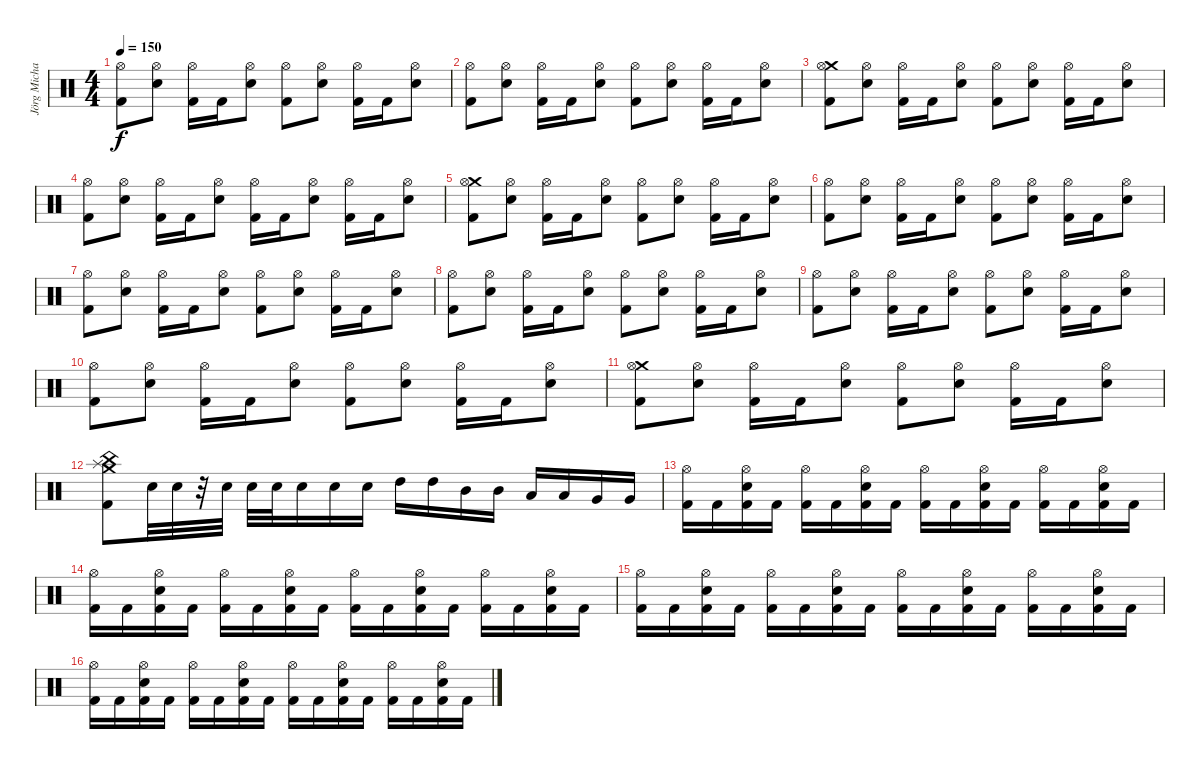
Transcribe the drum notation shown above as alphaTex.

\track ("Jörg Michael (Drums)" "Jörg Micha") {instrument percussion}
\staff {score}
\articulation defaults
\ts (4 4)
\tempo 150
\clef neutral
\ks c
("Hi-Hat (open)" "Kick (hit) 2").8{dy f} ("Hi-Hat (open)" "Electric Snare (hit)").8 ("Hi-Hat (open)" "Kick (hit) 2").16 "Kick (hit) 2".16 ("Hi-Hat (open)" "Electric Snare (hit)").8 ("Hi-Hat (open)" "Kick (hit) 2").8 ("Hi-Hat (open)" "Electric Snare (hit)").8 ("Hi-Hat (open)" "Kick (hit) 2").16 "Kick (hit) 2".16 ("Hi-Hat (open)" "Electric Snare (hit)").8 |
("Hi-Hat (open)" "Kick (hit) 2").8 ("Hi-Hat (open)" "Electric Snare (hit)").8 ("Hi-Hat (open)" "Kick (hit) 2").16 "Kick (hit) 2".16 ("Hi-Hat (open)" "Electric Snare (hit)").8 ("Hi-Hat (open)" "Kick (hit) 2").8 ("Hi-Hat (open)" "Electric Snare (hit)").8 ("Hi-Hat (open)" "Kick (hit) 2").16 "Kick (hit) 2".16 ("Hi-Hat (open)" "Electric Snare (hit)").8 |
("Crash medium (hit)" "Hi-Hat (open)" "Kick (hit) 2").8 ("Hi-Hat (open)" "Electric Snare (hit)").8 ("Hi-Hat (open)" "Kick (hit) 2").16 "Kick (hit) 2".16 ("Hi-Hat (open)" "Electric Snare (hit)").8 ("Hi-Hat (open)" "Kick (hit) 2").8 ("Hi-Hat (open)" "Electric Snare (hit)").8 ("Hi-Hat (open)" "Kick (hit) 2").16 "Kick (hit) 2".16 ("Hi-Hat (open)" "Electric Snare (hit)").8 |
("Hi-Hat (open)" "Kick (hit) 2").8 ("Hi-Hat (open)" "Electric Snare (hit)").8 ("Hi-Hat (open)" "Kick (hit) 2").16 "Kick (hit) 2".16 ("Hi-Hat (open)" "Electric Snare (hit)").8 ("Kick (hit) 2" "Hi-Hat (open)").16 "Kick (hit) 2".16 ("Hi-Hat (open)" "Electric Snare (hit)").8 ("Hi-Hat (open)" "Kick (hit) 2").16 "Kick (hit) 2".16 ("Hi-Hat (open)" "Electric Snare (hit)").8 |
("Crash medium (hit)" "Hi-Hat (open)" "Kick (hit) 2").8 ("Hi-Hat (open)" "Electric Snare (hit)").8 ("Hi-Hat (open)" "Kick (hit) 2").16 "Kick (hit) 2".16 ("Hi-Hat (open)" "Electric Snare (hit)").8 ("Hi-Hat (open)" "Kick (hit) 2").8 ("Hi-Hat (open)" "Electric Snare (hit)").8 ("Hi-Hat (open)" "Kick (hit) 2").16 "Kick (hit) 2".16 ("Hi-Hat (open)" "Electric Snare (hit)").8 |
("Hi-Hat (open)" "Kick (hit) 2").8 ("Hi-Hat (open)" "Electric Snare (hit)").8 ("Hi-Hat (open)" "Kick (hit) 2").16 "Kick (hit) 2".16 ("Hi-Hat (open)" "Electric Snare (hit)").8 ("Hi-Hat (open)" "Kick (hit) 2").8 ("Hi-Hat (open)" "Electric Snare (hit)").8 ("Hi-Hat (open)" "Kick (hit) 2").16 "Kick (hit) 2".16 ("Hi-Hat (open)" "Electric Snare (hit)").8 |
("Hi-Hat (open)" "Kick (hit) 2").8 ("Hi-Hat (open)" "Electric Snare (hit)").8 ("Hi-Hat (open)" "Kick (hit) 2").16 "Kick (hit) 2".16 ("Hi-Hat (open)" "Electric Snare (hit)").8 ("Hi-Hat (open)" "Kick (hit) 2").8 ("Hi-Hat (open)" "Electric Snare (hit)").8 ("Hi-Hat (open)" "Kick (hit) 2").16 "Kick (hit) 2".16 ("Hi-Hat (open)" "Electric Snare (hit)").8 |
("Hi-Hat (open)" "Kick (hit) 2").8 ("Hi-Hat (open)" "Electric Snare (hit)").8 ("Hi-Hat (open)" "Kick (hit) 2").16 "Kick (hit) 2".16 ("Hi-Hat (open)" "Electric Snare (hit)").8 ("Hi-Hat (open)" "Kick (hit) 2").8 ("Hi-Hat (open)" "Electric Snare (hit)").8 ("Hi-Hat (open)" "Kick (hit) 2").16 "Kick (hit) 2".16 ("Hi-Hat (open)" "Electric Snare (hit)").8 |
("Hi-Hat (open)" "Kick (hit) 2").8 ("Hi-Hat (open)" "Electric Snare (hit)").8 ("Hi-Hat (open)" "Kick (hit) 2").16 "Kick (hit) 2".16 ("Hi-Hat (open)" "Electric Snare (hit)").8 ("Hi-Hat (open)" "Kick (hit) 2").8 ("Hi-Hat (open)" "Electric Snare (hit)").8 ("Hi-Hat (open)" "Kick (hit) 2").16 "Kick (hit) 2".16 ("Hi-Hat (open)" "Electric Snare (hit)").8 |
("Hi-Hat (open)" "Kick (hit) 2").8 ("Hi-Hat (open)" "Electric Snare (hit)").8 ("Hi-Hat (open)" "Kick (hit) 2").16 "Kick (hit) 2".16 ("Hi-Hat (open)" "Electric Snare (hit)").8 ("Hi-Hat (open)" "Kick (hit) 2").8 ("Hi-Hat (open)" "Electric Snare (hit)").8 ("Hi-Hat (open)" "Kick (hit) 2").16 "Kick (hit) 2".16 ("Hi-Hat (open)" "Electric Snare (hit)").8 |
("Crash medium (hit)" "Hi-Hat (open)" "Kick (hit) 2").8 ("Hi-Hat (open)" "Electric Snare (hit)").8 ("Hi-Hat (open)" "Kick (hit) 2").16 "Kick (hit) 2".16 ("Hi-Hat (open)" "Electric Snare (hit)").8 ("Hi-Hat (open)" "Kick (hit) 2").8 ("Hi-Hat (open)" "Electric Snare (hit)").8 ("Hi-Hat (open)" "Kick (hit) 2").16 "Kick (hit) 2".16 ("Hi-Hat (open)" "Electric Snare (hit)").8 |
("Splash (hit)" "Crash medium (hit)" "China (hit)" "Kick (hit) 2").8{volume 15} "Electric Snare (hit)".32{volume 4} "Electric Snare (hit)".32{volume 5} r.32 "Electric Snare (hit)".32{volume 6} "Electric Snare (hit)".32{volume 8} "Electric Snare (hit)".32{volume 8} "Electric Snare (hit)".16{volume 9} "Electric Snare (hit)".16{volume 11} "Electric Snare (hit)".16{volume 13} "High Tom (hit)".16{volume 15} "High Tom (hit)".16 "Mid Tom (hit)".16 "Mid Tom (hit)".16 "Low Tom (hit)".16 "Low Tom (hit)".16 "Very Low Tom (hit)".16 "Very Low Tom (hit)".16 |
("Kick (hit) 2" "Hi-Hat (open)").16 "Kick (hit) 2".16 ("Kick (hit) 2" "Electric Snare (hit)" "Hi-Hat (open)").16 "Kick (hit) 2".16 ("Kick (hit) 2" "Hi-Hat (open)").16 "Kick (hit) 2".16 ("Kick (hit) 2" "Electric Snare (hit)" "Hi-Hat (open)").16 "Kick (hit) 2".16 ("Kick (hit) 2" "Hi-Hat (open)").16 "Kick (hit) 2".16 ("Kick (hit) 2" "Electric Snare (hit)" "Hi-Hat (open)").16 "Kick (hit) 2".16 ("Kick (hit) 2" "Hi-Hat (open)").16 "Kick (hit) 2".16 ("Kick (hit) 2" "Electric Snare (hit)" "Hi-Hat (open)").16 "Kick (hit) 2".16 |
("Kick (hit) 2" "Hi-Hat (open)").16 "Kick (hit) 2".16 ("Kick (hit) 2" "Electric Snare (hit)" "Hi-Hat (open)").16 "Kick (hit) 2".16 ("Kick (hit) 2" "Hi-Hat (open)").16 "Kick (hit) 2".16 ("Kick (hit) 2" "Electric Snare (hit)" "Hi-Hat (open)").16 "Kick (hit) 2".16 ("Kick (hit) 2" "Hi-Hat (open)").16 "Kick (hit) 2".16 ("Kick (hit) 2" "Electric Snare (hit)" "Hi-Hat (open)").16 "Kick (hit) 2".16 ("Kick (hit) 2" "Hi-Hat (open)").16 "Kick (hit) 2".16 ("Kick (hit) 2" "Electric Snare (hit)" "Hi-Hat (open)").16 "Kick (hit) 2".16 |
("Kick (hit) 2" "Hi-Hat (open)").16 "Kick (hit) 2".16 ("Kick (hit) 2" "Electric Snare (hit)" "Hi-Hat (open)").16 "Kick (hit) 2".16 ("Kick (hit) 2" "Hi-Hat (open)").16 "Kick (hit) 2".16 ("Kick (hit) 2" "Electric Snare (hit)" "Hi-Hat (open)").16 "Kick (hit) 2".16 ("Kick (hit) 2" "Hi-Hat (open)").16 "Kick (hit) 2".16 ("Kick (hit) 2" "Electric Snare (hit)" "Hi-Hat (open)").16 "Kick (hit) 2".16 ("Kick (hit) 2" "Hi-Hat (open)").16 "Kick (hit) 2".16 ("Kick (hit) 2" "Electric Snare (hit)" "Hi-Hat (open)").16 "Kick (hit) 2".16 |
("Kick (hit) 2" "Hi-Hat (open)").16 "Kick (hit) 2".16 ("Kick (hit) 2" "Electric Snare (hit)" "Hi-Hat (open)").16 "Kick (hit) 2".16 ("Kick (hit) 2" "Hi-Hat (open)").16 "Kick (hit) 2".16 ("Kick (hit) 2" "Electric Snare (hit)" "Hi-Hat (open)").16 "Kick (hit) 2".16 ("Kick (hit) 2" "Hi-Hat (open)").16 "Kick (hit) 2".16 ("Kick (hit) 2" "Electric Snare (hit)" "Hi-Hat (open)").16 "Kick (hit) 2".16 ("Kick (hit) 2" "Hi-Hat (open)").16 "Kick (hit) 2".16 ("Kick (hit) 2" "Electric Snare (hit)" "Hi-Hat (open)").16 "Kick (hit) 2".16
